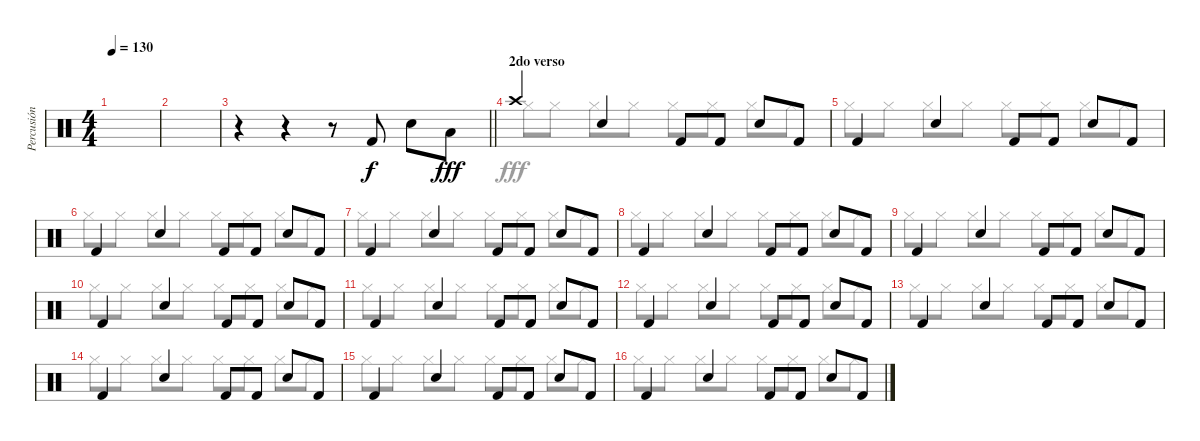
\track ("Percusión" "Percusión") {instrument percussion}
\staff
\articulation defaults
\voice
\ts (4 4)
\tempo 130
\clef neutral
\ks c
|
|
\barLineRight lightlight
r.4 r.4 r.8 "Kick (hit) 2".8 "Electric Snare (hit)".8{dy f} "Low Tom (hit)".8{dy fff} |
\section ("" "2do verso")
"Crash high (hit)".4 "Electric Snare (hit)".4 "Kick (hit) 2".8 "Kick (hit) 2".8 "Electric Snare (hit)".8 "Kick (hit) 2".8 |
"Kick (hit) 2".4 "Electric Snare (hit)".4 "Kick (hit) 2".8 "Kick (hit) 2".8 "Electric Snare (hit)".8 "Kick (hit) 2".8 |
"Kick (hit) 2".4 "Electric Snare (hit)".4 "Kick (hit) 2".8 "Kick (hit) 2".8 "Electric Snare (hit)".8 "Kick (hit) 2".8 |
"Kick (hit) 2".4 "Electric Snare (hit)".4 "Kick (hit) 2".8 "Kick (hit) 2".8 "Electric Snare (hit)".8 "Kick (hit) 2".8 |
"Kick (hit) 2".4 "Electric Snare (hit)".4 "Kick (hit) 2".8 "Kick (hit) 2".8 "Electric Snare (hit)".8 "Kick (hit) 2".8 |
"Kick (hit) 2".4 "Electric Snare (hit)".4 "Kick (hit) 2".8 "Kick (hit) 2".8 "Electric Snare (hit)".8 "Kick (hit) 2".8 |
"Kick (hit) 2".4 "Electric Snare (hit)".4 "Kick (hit) 2".8 "Kick (hit) 2".8 "Electric Snare (hit)".8 "Kick (hit) 2".8 |
"Kick (hit) 2".4 "Electric Snare (hit)".4 "Kick (hit) 2".8 "Kick (hit) 2".8 "Electric Snare (hit)".8 "Kick (hit) 2".8 |
"Kick (hit) 2".4 "Electric Snare (hit)".4 "Kick (hit) 2".8 "Kick (hit) 2".8 "Electric Snare (hit)".8 "Kick (hit) 2".8 |
"Kick (hit) 2".4 "Electric Snare (hit)".4 "Kick (hit) 2".8 "Kick (hit) 2".8 "Electric Snare (hit)".8 "Kick (hit) 2".8 |
"Kick (hit) 2".4 "Electric Snare (hit)".4 "Kick (hit) 2".8 "Kick (hit) 2".8 "Electric Snare (hit)".8 "Kick (hit) 2".8 |
"Kick (hit) 2".4 "Electric Snare (hit)".4 "Kick (hit) 2".8 "Kick (hit) 2".8 "Electric Snare (hit)".8 "Kick (hit) 2".8 |
"Kick (hit) 2".4 "Electric Snare (hit)".4 "Kick (hit) 2".8 "Kick (hit) 2".8 "Electric Snare (hit)".8 "Kick (hit) 2".8
\voice
\clef neutral
\ottava regular
\simile none
\ks c
|
|
\barLineRight lightlight
|
"Hi-Hat (closed)".8 "Hi-Hat (closed)".8 "Hi-Hat (closed)".8 "Hi-Hat (closed)".8 "Hi-Hat (closed)".8 "Hi-Hat (closed)".8 "Hi-Hat (closed)".8 "Hi-Hat (closed)".8 |
"Hi-Hat (closed)".8 "Hi-Hat (closed)".8 "Hi-Hat (closed)".8 "Hi-Hat (closed)".8 "Hi-Hat (closed)".8 "Hi-Hat (closed)".8 "Hi-Hat (closed)".8 "Hi-Hat (closed)".8 |
"Hi-Hat (closed)".8 "Hi-Hat (closed)".8 "Hi-Hat (closed)".8 "Hi-Hat (closed)".8 "Hi-Hat (closed)".8 "Hi-Hat (closed)".8 "Hi-Hat (closed)".8 "Hi-Hat (closed)".8 |
"Hi-Hat (closed)".8 "Hi-Hat (closed)".8 "Hi-Hat (closed)".8 "Hi-Hat (closed)".8 "Hi-Hat (closed)".8 "Hi-Hat (closed)".8 "Hi-Hat (closed)".8 "Hi-Hat (closed)".8 |
"Hi-Hat (closed)".8 "Hi-Hat (closed)".8 "Hi-Hat (closed)".8 "Hi-Hat (closed)".8 "Hi-Hat (closed)".8 "Hi-Hat (closed)".8 "Hi-Hat (closed)".8 "Hi-Hat (closed)".8 |
"Hi-Hat (closed)".8 "Hi-Hat (closed)".8 "Hi-Hat (closed)".8 "Hi-Hat (closed)".8 "Hi-Hat (closed)".8 "Hi-Hat (closed)".8 "Hi-Hat (closed)".8 "Hi-Hat (closed)".8 |
"Hi-Hat (closed)".8 "Hi-Hat (closed)".8 "Hi-Hat (closed)".8 "Hi-Hat (closed)".8 "Hi-Hat (closed)".8 "Hi-Hat (closed)".8 "Hi-Hat (closed)".8 "Hi-Hat (closed)".8 |
"Hi-Hat (closed)".8 "Hi-Hat (closed)".8 "Hi-Hat (closed)".8 "Hi-Hat (closed)".8 "Hi-Hat (closed)".8 "Hi-Hat (closed)".8 "Hi-Hat (closed)".8 "Hi-Hat (closed)".8 |
"Hi-Hat (closed)".8 "Hi-Hat (closed)".8 "Hi-Hat (closed)".8 "Hi-Hat (closed)".8 "Hi-Hat (closed)".8 "Hi-Hat (closed)".8 "Hi-Hat (closed)".8 "Hi-Hat (closed)".8 |
"Hi-Hat (closed)".8 "Hi-Hat (closed)".8 "Hi-Hat (closed)".8 "Hi-Hat (closed)".8 "Hi-Hat (closed)".8 "Hi-Hat (closed)".8 "Hi-Hat (closed)".8 "Hi-Hat (closed)".8 |
"Hi-Hat (closed)".8 "Hi-Hat (closed)".8 "Hi-Hat (closed)".8 "Hi-Hat (closed)".8 "Hi-Hat (closed)".8 "Hi-Hat (closed)".8 "Hi-Hat (closed)".8 "Hi-Hat (closed)".8 |
"Hi-Hat (closed)".8 "Hi-Hat (closed)".8 "Hi-Hat (closed)".8 "Hi-Hat (closed)".8 "Hi-Hat (closed)".8 "Hi-Hat (closed)".8 "Hi-Hat (closed)".8 "Hi-Hat (closed)".8 |
"Hi-Hat (closed)".8 "Hi-Hat (closed)".8 "Hi-Hat (closed)".8 "Hi-Hat (closed)".8 "Hi-Hat (closed)".8 "Hi-Hat (closed)".8 "Hi-Hat (closed)".8 "Hi-Hat (closed)".8
